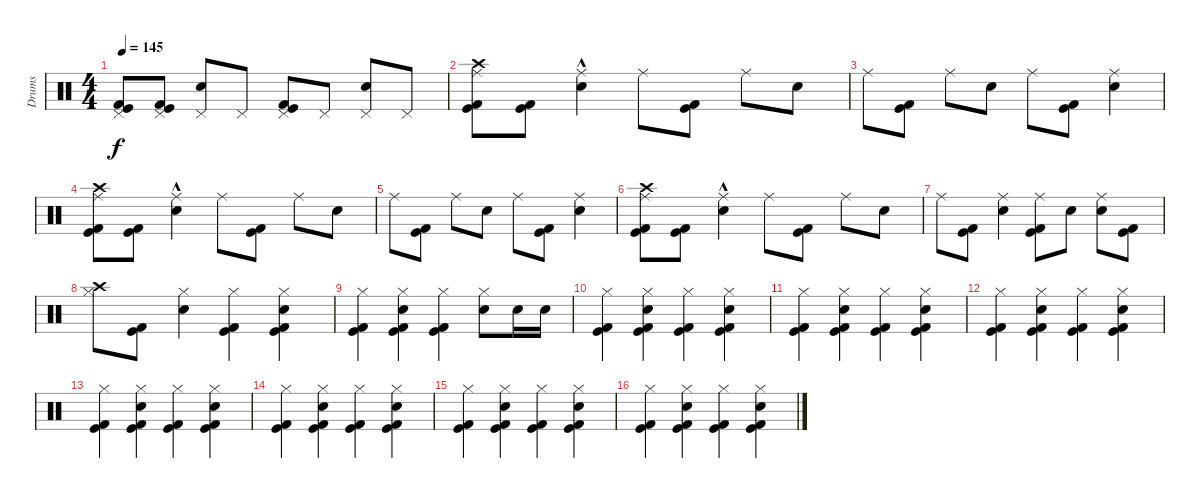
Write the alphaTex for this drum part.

\track ("Drums" "Drums") {instrument percussion}
\staff {score}
\articulation defaults
\ts (4 4)
\tempo 145
\clef neutral
\ks c
("Kick (hit) 2" "Pedal Hi-Hat (hit)" "Kick (hit)").8{dy f} ("Pedal Hi-Hat (hit)" "Kick (hit) 2" "Kick (hit)").8 ("Electric Snare (hit)" "Pedal Hi-Hat (hit)").8 "Pedal Hi-Hat (hit)".8 ("Kick (hit) 2" "Pedal Hi-Hat (hit)" "Kick (hit)").8 "Pedal Hi-Hat (hit)".8 ("Electric Snare (hit)" "Pedal Hi-Hat (hit)").8 "Pedal Hi-Hat (hit)".8 |
("Ride (middle)" "Crash high (hit)" "Kick (hit) 2" "Kick (hit)").8 ("Kick (hit) 2" "Kick (hit)").8 ("Ride (middle)" "Electric Snare (hit)"{hac}).4 "Ride (middle)".8 ("Kick (hit) 2" "Kick (hit)").8 "Ride (middle)".8 "Electric Snare (hit)".8 |
"Ride (middle)".8 ("Kick (hit) 2" "Kick (hit)").8 "Ride (middle)".8 "Electric Snare (hit)".8 "Ride (middle)".8 ("Kick (hit) 2" "Kick (hit)").8 ("Ride (middle)" "Electric Snare (hit)").4 |
("Ride (middle)" "Crash high (hit)" "Kick (hit) 2" "Kick (hit)").8 ("Kick (hit) 2" "Kick (hit)").8 ("Ride (middle)" "Electric Snare (hit)"{hac}).4 "Ride (middle)".8 ("Kick (hit) 2" "Kick (hit)").8 "Ride (middle)".8 "Electric Snare (hit)".8 |
"Ride (middle)".8 ("Kick (hit) 2" "Kick (hit)").8 "Ride (middle)".8 "Electric Snare (hit)".8 "Ride (middle)".8 ("Kick (hit) 2" "Kick (hit)").8 ("Ride (middle)" "Electric Snare (hit)").4 |
("Ride (middle)" "Crash high (hit)" "Kick (hit) 2" "Kick (hit)").8 ("Kick (hit) 2" "Kick (hit)").8 ("Ride (middle)" "Electric Snare (hit)"{hac}).4 "Ride (middle)".8 ("Kick (hit) 2" "Kick (hit)").8 "Ride (middle)".8 "Electric Snare (hit)".8 |
"Ride (middle)".8 ("Kick (hit) 2" "Kick (hit)").8 ("Ride (middle)" "Electric Snare (hit)").4 ("Ride (middle)" "Kick (hit) 2" "Kick (hit)").8 "Electric Snare (hit)".8 ("Ride (middle)" "Electric Snare (hit)").8 ("Kick (hit) 2" "Kick (hit)").8 |
("Crash high (hit)" "Hi-Hat (closed)").8 ("Kick (hit) 2" "Kick (hit)").8 ("Hi-Hat (closed)" "Electric Snare (hit)").4 ("Hi-Hat (closed)" "Kick (hit) 2" "Kick (hit)").4 ("Electric Snare (hit)" "Hi-Hat (closed)" "Kick (hit) 2" "Kick (hit)").4 |
("Kick (hit) 2" "Hi-Hat (closed)" "Kick (hit)").4 ("Electric Snare (hit)" "Hi-Hat (closed)" "Kick (hit) 2" "Kick (hit)").4 ("Hi-Hat (closed)" "Kick (hit) 2" "Kick (hit)").4 ("Hi-Hat (closed)" "Electric Snare (hit)").8 "Electric Snare (hit)".16 "Electric Snare (hit)".16 |
("Hi-Hat (closed)" "Kick (hit) 2" "Kick (hit)").4 ("Hi-Hat (closed)" "Electric Snare (hit)" "Kick (hit) 2" "Kick (hit)").4 ("Hi-Hat (closed)" "Kick (hit) 2" "Kick (hit)").4 ("Electric Snare (hit)" "Hi-Hat (closed)" "Kick (hit) 2" "Kick (hit)").4 |
("Kick (hit) 2" "Hi-Hat (closed)" "Kick (hit)").4 ("Electric Snare (hit)" "Hi-Hat (closed)" "Kick (hit) 2" "Kick (hit)").4 ("Hi-Hat (closed)" "Kick (hit) 2" "Kick (hit)").4 ("Hi-Hat (closed)" "Electric Snare (hit)" "Kick (hit) 2" "Kick (hit)").4 |
("Hi-Hat (closed)" "Kick (hit) 2" "Kick (hit)").4 ("Hi-Hat (closed)" "Electric Snare (hit)" "Kick (hit) 2" "Kick (hit)").4 ("Hi-Hat (closed)" "Kick (hit) 2" "Kick (hit)").4 ("Electric Snare (hit)" "Hi-Hat (closed)" "Kick (hit) 2" "Kick (hit)").4 |
("Kick (hit) 2" "Hi-Hat (closed)" "Kick (hit)").4 ("Electric Snare (hit)" "Hi-Hat (closed)" "Kick (hit) 2" "Kick (hit)").4 ("Hi-Hat (closed)" "Kick (hit) 2" "Kick (hit)").4 ("Hi-Hat (closed)" "Electric Snare (hit)" "Kick (hit) 2" "Kick (hit)").4 |
("Hi-Hat (closed)" "Kick (hit) 2" "Kick (hit)").4 ("Hi-Hat (closed)" "Electric Snare (hit)" "Kick (hit) 2" "Kick (hit)").4 ("Hi-Hat (closed)" "Kick (hit) 2" "Kick (hit)").4 ("Electric Snare (hit)" "Hi-Hat (closed)" "Kick (hit) 2" "Kick (hit)").4 |
("Kick (hit) 2" "Hi-Hat (closed)" "Kick (hit)").4 ("Electric Snare (hit)" "Hi-Hat (closed)" "Kick (hit) 2" "Kick (hit)").4 ("Hi-Hat (closed)" "Kick (hit) 2" "Kick (hit)").4 ("Hi-Hat (closed)" "Electric Snare (hit)" "Kick (hit) 2" "Kick (hit)").4 |
("Hi-Hat (closed)" "Kick (hit) 2" "Kick (hit)").4 ("Hi-Hat (closed)" "Electric Snare (hit)" "Kick (hit) 2" "Kick (hit)").4 ("Hi-Hat (closed)" "Kick (hit) 2" "Kick (hit)").4 ("Electric Snare (hit)" "Hi-Hat (closed)" "Kick (hit) 2" "Kick (hit)").4
